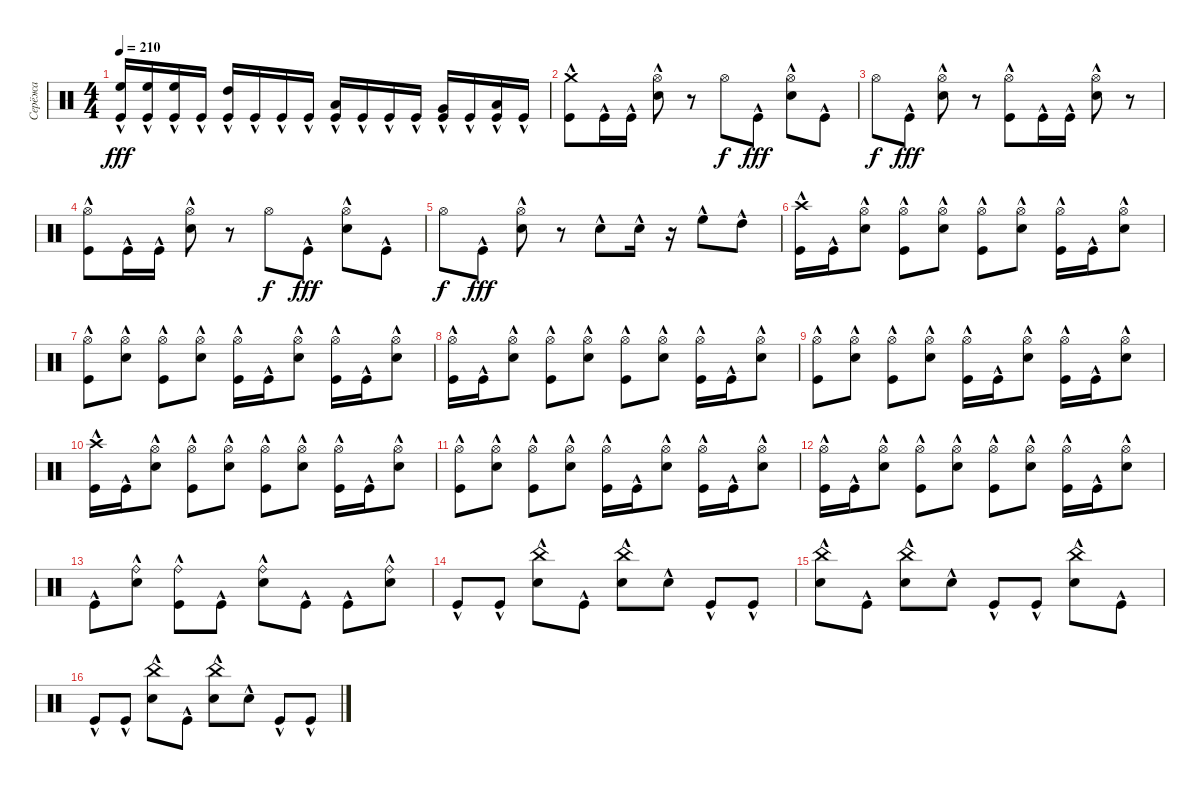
\track ("Серёжа" "Серёжа") {instrument percussion}
\staff {score}
\articulation defaults
\ts (4 4)
\tempo 210
\clef neutral
\ks c
("High Floor Tom (hit)"{hac} "Kick (hit)"{hac}).16{dy fff} ("High Floor Tom (hit)"{hac} "Kick (hit)"{hac}).16 ("High Floor Tom (hit)"{hac} "Kick (hit)"{hac}).16 "Kick (hit)"{hac}.16 ("High Tom (hit)"{hac} "Kick (hit)"{hac}).16 "Kick (hit)"{hac}.16 "Kick (hit)"{hac}.16 "Kick (hit)"{hac}.16 ("Low Tom (hit)"{hac} "Kick (hit)"{hac}).16 "Kick (hit)"{hac}.16 "Kick (hit)"{hac}.16 "Kick (hit)"{hac}.16 ("Very Low Tom (hit)"{hac} "Kick (hit)"{hac}).16 "Kick (hit)"{hac}.16 ("Low Floor Tom (hit)" "Kick (hit)"{hac}).16 "Kick (hit)"{hac}.16 |
("Crash medium (hit)"{hac} "Kick (hit)"{hac}).8 "Kick (hit)"{hac}.16 "Kick (hit)"{hac}.16 ("Hi-Hat (open)" "Snare (hit) 2"{hac}).8 r.8 "Hi-Hat (open)".8{dy f} "Kick (hit)"{hac}.8{dy fff} ("Hi-Hat (open)" "Snare (hit) 2"{hac}).8 "Kick (hit)"{hac}.8 |
"Hi-Hat (open)".8{dy f} "Kick (hit)"{hac}.8{dy fff} ("Hi-Hat (open)" "Snare (hit) 2"{hac}).8 r.8 ("Hi-Hat (open)" "Kick (hit)"{hac}).8 "Kick (hit)"{hac}.16 "Kick (hit)"{hac}.16 ("Hi-Hat (open)" "Snare (hit) 2"{hac}).8 r.8 |
("Hi-Hat (open)" "Kick (hit)"{hac}).8 "Kick (hit)"{hac}.16 "Kick (hit)"{hac}.16 ("Hi-Hat (open)" "Snare (hit) 2"{hac}).8 r.8 "Hi-Hat (open)".8{dy f} "Kick (hit)"{hac}.8{dy fff} ("Hi-Hat (open)" "Snare (hit) 2"{hac}).8 "Kick (hit)"{hac}.8 |
"Hi-Hat (open)".8{dy f} "Kick (hit)"{hac}.8{dy fff} ("Hi-Hat (open)" "Snare (hit) 2"{hac}).8 r.8 "Snare (hit) 2"{hac}.8 "Snare (hit) 2"{hac}.16 r.16 "High Floor Tom (hit)"{hac}.8 "High Tom (hit)"{hac}.8 |
("Crash high (hit)"{hac} "Kick (hit)"{hac}).16 "Kick (hit)"{hac}.16 ("Hi-Hat (open)" "Snare (hit) 2"{hac}).8 ("Hi-Hat (open)" "Kick (hit)"{hac}).8 ("Hi-Hat (open)" "Snare (hit) 2"{hac}).8 ("Hi-Hat (open)" "Kick (hit)"{hac}).8 ("Hi-Hat (open)" "Snare (hit) 2"{hac}).8 ("Hi-Hat (open)" "Kick (hit)"{hac}).16 "Kick (hit)"{hac}.16 ("Hi-Hat (open)" "Snare (hit) 2"{hac}).8 |
("Hi-Hat (open)" "Kick (hit)"{hac}).8 ("Hi-Hat (open)" "Snare (hit) 2"{hac}).8 ("Hi-Hat (open)" "Kick (hit)"{hac}).8 ("Hi-Hat (open)" "Snare (hit) 2"{hac}).8 ("Hi-Hat (open)" "Kick (hit)"{hac}).16 "Kick (hit)"{hac}.16 ("Hi-Hat (open)" "Snare (hit) 2"{hac}).8 ("Hi-Hat (open)" "Kick (hit)"{hac}).16 "Kick (hit)"{hac}.16 ("Hi-Hat (open)" "Snare (hit) 2"{hac}).8 |
("Hi-Hat (open)" "Kick (hit)"{hac}).16 "Kick (hit)"{hac}.16 ("Hi-Hat (open)" "Snare (hit) 2"{hac}).8 ("Hi-Hat (open)" "Kick (hit)"{hac}).8 ("Hi-Hat (open)" "Snare (hit) 2"{hac}).8 ("Hi-Hat (open)" "Kick (hit)"{hac}).8 ("Hi-Hat (open)" "Snare (hit) 2"{hac}).8 ("Hi-Hat (open)" "Kick (hit)"{hac}).16 "Kick (hit)"{hac}.16 ("Hi-Hat (open)" "Snare (hit) 2"{hac}).8 |
("Hi-Hat (open)" "Kick (hit)"{hac}).8 ("Hi-Hat (open)" "Snare (hit) 2"{hac}).8 ("Hi-Hat (open)" "Kick (hit)"{hac}).8 ("Hi-Hat (open)" "Snare (hit) 2"{hac}).8 ("Hi-Hat (open)" "Kick (hit)"{hac}).16 "Kick (hit)"{hac}.16 ("Hi-Hat (open)" "Snare (hit) 2"{hac}).8 ("Hi-Hat (open)" "Kick (hit)"{hac}).16 "Kick (hit)"{hac}.16 ("Hi-Hat (open)" "Snare (hit) 2"{hac}).8 |
("Crash high (hit)"{hac} "Kick (hit)"{hac}).16 "Kick (hit)"{hac}.16 ("Hi-Hat (open)" "Snare (hit) 2"{hac}).8 ("Hi-Hat (open)" "Kick (hit)"{hac}).8 ("Hi-Hat (open)" "Snare (hit) 2"{hac}).8 ("Hi-Hat (open)" "Kick (hit)"{hac}).8 ("Hi-Hat (open)" "Snare (hit) 2"{hac}).8 ("Hi-Hat (open)" "Kick (hit)"{hac}).16 "Kick (hit)"{hac}.16 ("Hi-Hat (open)" "Snare (hit) 2"{hac}).8 |
("Hi-Hat (open)" "Kick (hit)"{hac}).8 ("Hi-Hat (open)" "Snare (hit) 2"{hac}).8 ("Hi-Hat (open)" "Kick (hit)"{hac}).8 ("Hi-Hat (open)" "Snare (hit) 2"{hac}).8 ("Hi-Hat (open)" "Kick (hit)"{hac}).16 "Kick (hit)"{hac}.16 ("Hi-Hat (open)" "Snare (hit) 2"{hac}).8 ("Hi-Hat (open)" "Kick (hit)"{hac}).16 "Kick (hit)"{hac}.16 ("Hi-Hat (open)" "Snare (hit) 2"{hac}).8 |
("Hi-Hat (open)" "Kick (hit)"{hac}).16 "Kick (hit)"{hac}.16 ("Hi-Hat (open)" "Snare (hit) 2"{hac}).8 ("Hi-Hat (open)" "Kick (hit)"{hac}).8 ("Hi-Hat (open)" "Snare (hit) 2"{hac}).8 ("Hi-Hat (open)" "Kick (hit)"{hac}).8 ("Hi-Hat (open)" "Snare (hit) 2"{hac}).8 ("Hi-Hat (open)" "Kick (hit)"{hac}).16 "Kick (hit)"{hac}.16 ("Hi-Hat (open)" "Snare (hit) 2"{hac}).8 |
"Kick (hit)"{hac}.8 ("Ride (bell)"{hac} "Snare (hit) 2"{hac}).8 ("Ride (bell)"{hac} "Kick (hit)"{hac}).8 "Kick (hit)"{hac}.8 ("Ride (bell)"{hac} "Snare (hit) 2"{hac}).8 "Kick (hit)"{hac}.8 "Kick (hit)"{hac}.8 ("Ride (bell)"{hac} "Snare (hit) 2"{hac}).8 |
"Kick (hit)"{hac}.8 "Kick (hit)"{hac}.8 ("China (hit)" "Snare (hit) 2"{hac}).8 "Kick (hit)"{hac}.8 ("China (hit)" "Snare (hit) 2"{hac}).8 "Snare (hit) 2"{hac}.8 "Kick (hit)"{hac}.8 "Kick (hit)"{hac}.8 |
("China (hit)" "Snare (hit) 2"{hac}).8 "Kick (hit)"{hac}.8 ("China (hit)" "Snare (hit) 2"{hac}).8 "Snare (hit) 2"{hac}.8 "Kick (hit)"{hac}.8 "Kick (hit)"{hac}.8 ("China (hit)" "Snare (hit) 2"{hac}).8 "Kick (hit)"{hac}.8 |
"Kick (hit)"{hac}.8 "Kick (hit)"{hac}.8 ("China (hit)" "Snare (hit) 2"{hac}).8 "Kick (hit)"{hac}.8 ("China (hit)" "Snare (hit) 2"{hac}).8 "Snare (hit) 2"{hac}.8 "Kick (hit)"{hac}.8 "Kick (hit)"{hac}.8
